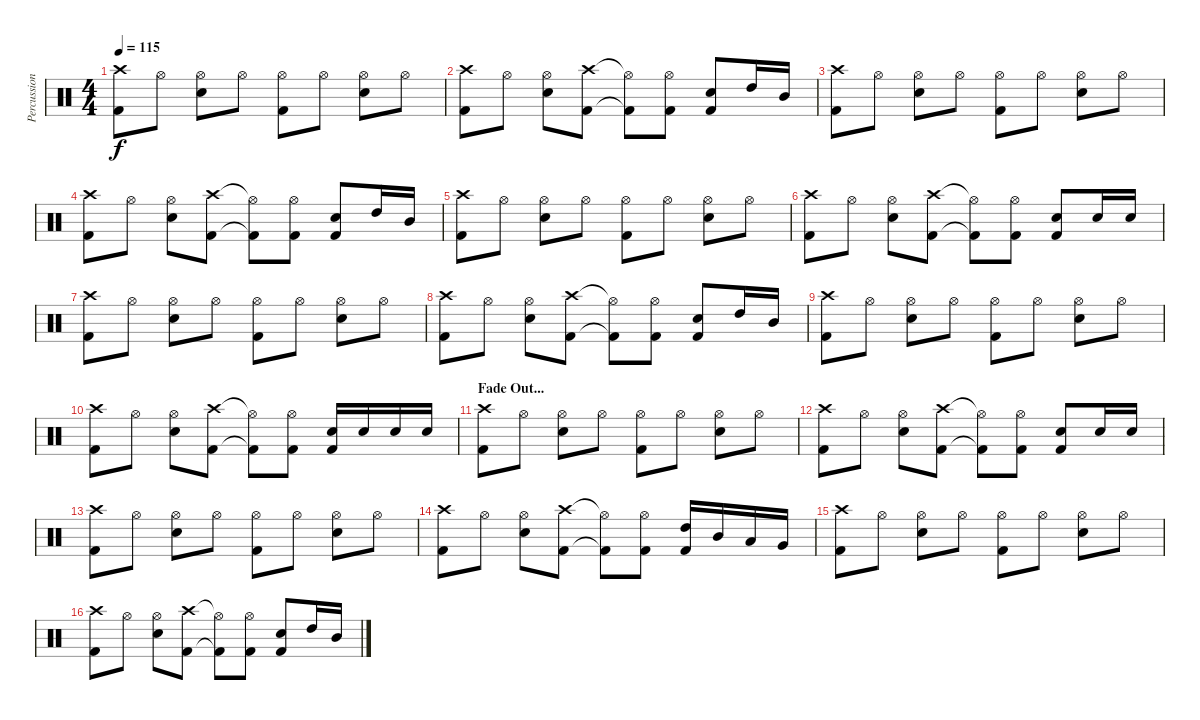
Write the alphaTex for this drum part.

\track ("Percussion" "Percussion") {instrument percussion}
\staff {score}
\articulation defaults
\ts (4 4)
\tempo 115
\clef neutral
\ks c
("Crash high (hit)" "Kick (hit) 2").8{dy f} "Hi-Hat (open)".8 ("Hi-Hat (open)" "Snare (hit) 2").8 "Hi-Hat (open)".8 ("Hi-Hat (open)" "Kick (hit) 2").8 "Hi-Hat (open)".8 ("Hi-Hat (open)" "Snare (hit) 2").8 "Hi-Hat (open)".8 |
("Crash high (hit)" "Kick (hit) 2").8 "Hi-Hat (open)".8 ("Hi-Hat (open)" "Snare (hit) 2").8 ("Crash high (hit)" "Kick (hit) 2").8 ("Hi-Hat (open)"{t} "Kick (hit) 2"{t}).8 ("Hi-Hat (open)" "Kick (hit) 2").8 ("Snare (hit) 2" "Kick (hit) 2").8 "High Tom (hit)".16 "Mid Tom (hit)".16 |
("Crash high (hit)" "Kick (hit) 2").8 "Hi-Hat (open)".8 ("Hi-Hat (open)" "Snare (hit) 2").8 "Hi-Hat (open)".8 ("Hi-Hat (open)" "Kick (hit) 2").8 "Hi-Hat (open)".8 ("Hi-Hat (open)" "Snare (hit) 2").8 "Hi-Hat (open)".8 |
("Crash high (hit)" "Kick (hit) 2").8 "Hi-Hat (open)".8 ("Hi-Hat (open)" "Snare (hit) 2").8 ("Crash high (hit)" "Kick (hit) 2").8 ("Hi-Hat (open)"{t} "Kick (hit) 2"{t}).8 ("Hi-Hat (open)" "Kick (hit) 2").8 ("Snare (hit) 2" "Kick (hit) 2").8 "High Tom (hit)".16 "Mid Tom (hit)".16 |
("Crash high (hit)" "Kick (hit) 2").8 "Hi-Hat (open)".8 ("Hi-Hat (open)" "Snare (hit) 2").8 "Hi-Hat (open)".8 ("Hi-Hat (open)" "Kick (hit) 2").8 "Hi-Hat (open)".8 ("Hi-Hat (open)" "Snare (hit) 2").8 "Hi-Hat (open)".8 |
("Crash high (hit)" "Kick (hit) 2").8 "Hi-Hat (open)".8 ("Hi-Hat (open)" "Snare (hit) 2").8 ("Crash high (hit)" "Kick (hit) 2").8 ("Hi-Hat (open)"{t} "Kick (hit) 2"{t}).8 ("Hi-Hat (open)" "Kick (hit) 2").8 ("Snare (hit) 2" "Kick (hit) 2").8 "Snare (hit) 2".16 "Snare (hit) 2".16 |
("Crash high (hit)" "Kick (hit) 2").8 "Hi-Hat (open)".8 ("Hi-Hat (open)" "Snare (hit) 2").8 "Hi-Hat (open)".8 ("Hi-Hat (open)" "Kick (hit) 2").8 "Hi-Hat (open)".8 ("Hi-Hat (open)" "Snare (hit) 2").8 "Hi-Hat (open)".8 |
("Crash high (hit)" "Kick (hit) 2").8 "Hi-Hat (open)".8 ("Hi-Hat (open)" "Snare (hit) 2").8 ("Crash high (hit)" "Kick (hit) 2").8 ("Hi-Hat (open)"{t} "Kick (hit) 2"{t}).8 ("Hi-Hat (open)" "Kick (hit) 2").8 ("Snare (hit) 2" "Kick (hit) 2").8 "High Tom (hit)".16 "Mid Tom (hit)".16 |
("Crash high (hit)" "Kick (hit) 2").8 "Hi-Hat (open)".8 ("Hi-Hat (open)" "Snare (hit) 2").8 "Hi-Hat (open)".8 ("Hi-Hat (open)" "Kick (hit) 2").8 "Hi-Hat (open)".8 ("Hi-Hat (open)" "Snare (hit) 2").8 "Hi-Hat (open)".8 |
("Crash high (hit)" "Kick (hit) 2").8 "Hi-Hat (open)".8 ("Hi-Hat (open)" "Snare (hit) 2").8 ("Crash high (hit)" "Kick (hit) 2").8 ("Hi-Hat (open)"{t} "Kick (hit) 2"{t}).8 ("Hi-Hat (open)" "Kick (hit) 2").8 ("Snare (hit) 2" "Kick (hit) 2").16 "Snare (hit) 2".16 "Snare (hit) 2".16 "Snare (hit) 2".16 |
\section ("" "Fade Out...")
("Crash high (hit)" "Kick (hit) 2").8 "Hi-Hat (open)".8 ("Hi-Hat (open)" "Snare (hit) 2").8 "Hi-Hat (open)".8 ("Hi-Hat (open)" "Kick (hit) 2").8 "Hi-Hat (open)".8 ("Hi-Hat (open)" "Snare (hit) 2").8 "Hi-Hat (open)".8 |
("Crash high (hit)" "Kick (hit) 2").8 "Hi-Hat (open)".8 ("Hi-Hat (open)" "Snare (hit) 2").8 ("Crash high (hit)" "Kick (hit) 2").8 ("Hi-Hat (open)"{t} "Kick (hit) 2"{t}).8 ("Hi-Hat (open)" "Kick (hit) 2").8 ("Snare (hit) 2" "Kick (hit) 2").8 "Snare (hit) 2".16 "Snare (hit) 2".16 |
("Crash high (hit)" "Kick (hit) 2").8 "Hi-Hat (open)".8 ("Hi-Hat (open)" "Snare (hit) 2").8 "Hi-Hat (open)".8 ("Hi-Hat (open)" "Kick (hit) 2").8 "Hi-Hat (open)".8 ("Hi-Hat (open)" "Snare (hit) 2").8 "Hi-Hat (open)".8 |
("Crash high (hit)" "Kick (hit) 2").8 "Hi-Hat (open)".8 ("Hi-Hat (open)" "Snare (hit) 2").8 ("Crash high (hit)" "Kick (hit) 2").8 ("Hi-Hat (open)"{t} "Kick (hit) 2"{t}).8 ("Hi-Hat (open)" "Kick (hit) 2").8 ("High Tom (hit)" "Kick (hit) 2").16 "Mid Tom (hit)".16 "Low Tom (hit)".16 "Very Low Tom (hit)".16 |
("Crash high (hit)" "Kick (hit) 2").8 "Hi-Hat (open)".8 ("Hi-Hat (open)" "Snare (hit) 2").8 "Hi-Hat (open)".8 ("Hi-Hat (open)" "Kick (hit) 2").8 "Hi-Hat (open)".8 ("Hi-Hat (open)" "Snare (hit) 2").8 "Hi-Hat (open)".8 |
("Crash high (hit)" "Kick (hit) 2").8 "Hi-Hat (open)".8 ("Hi-Hat (open)" "Snare (hit) 2").8 ("Crash high (hit)" "Kick (hit) 2").8 ("Hi-Hat (open)"{t} "Kick (hit) 2"{t}).8 ("Hi-Hat (open)" "Kick (hit) 2").8 ("Snare (hit) 2" "Kick (hit) 2").8 "High Tom (hit)".16 "Mid Tom (hit)".16
